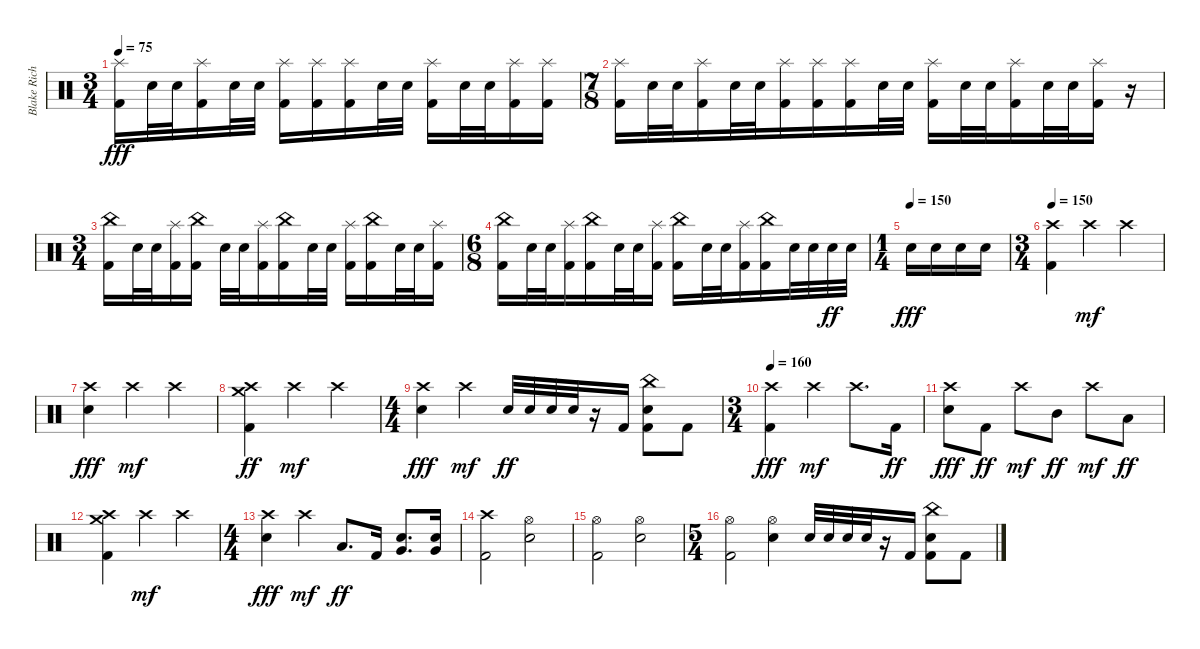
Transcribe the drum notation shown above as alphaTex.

\track ("Blake Richardson" "Blake Rich") {instrument percussion}
\staff {score}
\articulation defaults
\ts (3 4)
\tempo 75
\clef neutral
\ks c
("Splash (hit)" "Kick (hit) 2").16{dy fff} "Electric Snare (hit)".32 "Electric Snare (hit)".32 ("Splash (hit)" "Kick (hit) 2").16 "Electric Snare (hit)".32 "Electric Snare (hit)".32 ("Splash (hit)" "Kick (hit) 2").16 ("Splash (hit)" "Kick (hit) 2").16 ("Splash (hit)" "Kick (hit) 2").16 "Electric Snare (hit)".32 "Electric Snare (hit)".32 ("Splash (hit)" "Kick (hit) 2").16 "Electric Snare (hit)".32 "Electric Snare (hit)".32 ("Splash (hit)" "Kick (hit) 2").16 ("Splash (hit)" "Kick (hit) 2").16 |
\ts (7 8)
("Splash (hit)" "Kick (hit) 2").16 "Electric Snare (hit)".32 "Electric Snare (hit)".32 ("Splash (hit)" "Kick (hit) 2").16 "Electric Snare (hit)".32 "Electric Snare (hit)".32 ("Splash (hit)" "Kick (hit) 2").16 ("Splash (hit)" "Kick (hit) 2").16 ("Splash (hit)" "Kick (hit) 2").16 "Electric Snare (hit)".32 "Electric Snare (hit)".32 ("Splash (hit)" "Kick (hit) 2").16 "Electric Snare (hit)".32 "Electric Snare (hit)".32 ("Splash (hit)" "Kick (hit) 2").16 "Electric Snare (hit)".32 "Electric Snare (hit)".32 ("Splash (hit)" "Kick (hit) 2").16 r.16 |
\ts (3 4)
("China (hit)" "Kick (hit) 2").16 "Electric Snare (hit)".32 "Electric Snare (hit)".32 ("Splash (hit)" "Kick (hit) 2").16 ("China (hit)" "Kick (hit) 2").16 "Electric Snare (hit)".32 "Electric Snare (hit)".32 ("Splash (hit)" "Kick (hit) 2").16 ("China (hit)" "Kick (hit) 2").16 "Electric Snare (hit)".32 "Electric Snare (hit)".32 ("Splash (hit)" "Kick (hit) 2").16 ("China (hit)" "Kick (hit) 2").16 "Electric Snare (hit)".32 "Electric Snare (hit)".32 ("Splash (hit)" "Kick (hit) 2").16 |
\ts (6 8)
("China (hit)" "Kick (hit) 2").16 "Electric Snare (hit)".32 "Electric Snare (hit)".32 ("Splash (hit)" "Kick (hit) 2").16 ("China (hit)" "Kick (hit) 2").16 "Electric Snare (hit)".32 "Electric Snare (hit)".32 ("Splash (hit)" "Kick (hit) 2").16 ("China (hit)" "Kick (hit) 2").16 "Electric Snare (hit)".32 "Electric Snare (hit)".32 ("Splash (hit)" "Kick (hit) 2").16 ("China (hit)" "Kick (hit) 2").16 "Electric Snare (hit)".32 "Electric Snare (hit)".32 "Electric Snare (hit)".32{dy ff} "Electric Snare (hit)".32 |
\ts (1 4)
\tempo (150)
"Electric Snare (hit)".16{dy fff} "Electric Snare (hit)".16 "Electric Snare (hit)".16 "Electric Snare (hit)".16 |
\ts (3 4)
\tempo 150
("Crash high (hit)" "Kick (hit) 2").4 "Crash high (hit)".4{dy mf} "Crash high (hit)".4 |
("Crash high (hit)" "Electric Snare (hit)").4{dy fff} "Crash high (hit)".4{dy mf} "Crash high (hit)".4 |
("Crash high (hit)" "Crash medium (hit)" "Kick (hit) 2").4{dy ff} "Crash high (hit)".4{dy mf} "Crash high (hit)".4 |
\ts (4 4)
("Crash high (hit)" "Electric Snare (hit)").4{dy fff} "Crash high (hit)".4{dy mf} "Electric Snare (hit)".32{dy ff} "Electric Snare (hit)".32 "Electric Snare (hit)".32 "Electric Snare (hit)".32 r.16 "Kick (hit) 2".16 ("China (hit)" "Electric Snare (hit)" "Kick (hit) 2").8 "Kick (hit) 2".8 |
\ts (3 4)
\tempo 160
("Crash high (hit)" "Kick (hit) 2").4{dy fff} "Crash high (hit)".4{dy mf} "Crash high (hit)".8{d} "Kick (hit) 2".16{dy ff} |
("Crash high (hit)" "Electric Snare (hit)").8{dy fff} "Kick (hit) 2".8{dy ff} "Crash high (hit)".8{dy mf} "Mid Tom (hit)".8{dy ff} "Crash high (hit)".8{dy mf} "Low Tom (hit)".8{dy ff} |
("Crash high (hit)" "Crash medium (hit)" "Kick (hit) 2").4 "Crash high (hit)".4{dy mf} "Crash high (hit)".4 |
\ts (4 4)
("Crash high (hit)" "Electric Snare (hit)").4{dy fff} "Crash high (hit)".4{dy mf} "Low Tom (hit)".8{d dy ff} "Kick (hit) 2".16 ("Very Low Tom (hit)" "Electric Snare (hit)").8{d} ("Very Low Tom (hit)" "Electric Snare (hit)").16 |
("Crash high (hit)" "Kick (hit) 2").2 ("Hi-Hat (open)" "Electric Snare (hit)").2 |
("Hi-Hat (open)" "Kick (hit) 2").2 ("Hi-Hat (open)" "Electric Snare (hit)").2 |
\ts (5 4)
("Hi-Hat (open)" "Kick (hit) 2").2 ("Hi-Hat (open)" "Electric Snare (hit)").4 "Electric Snare (hit)".32 "Electric Snare (hit)".32 "Electric Snare (hit)".32 "Electric Snare (hit)".32 r.16 "Kick (hit) 2".16 ("China (hit)" "Electric Snare (hit)" "Kick (hit) 2").8 "Kick (hit) 2".8
